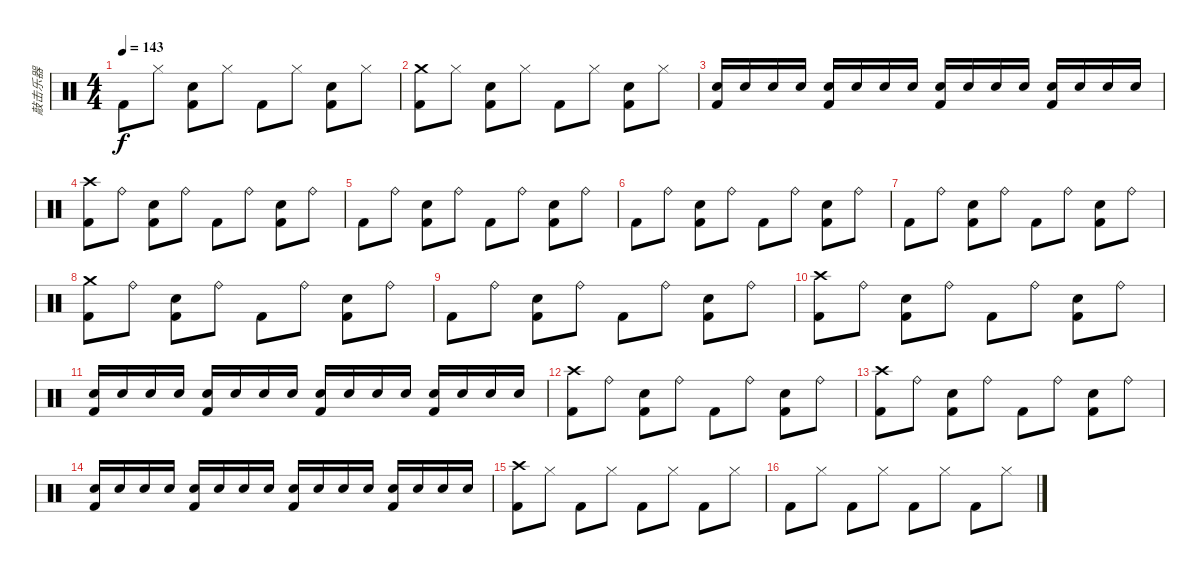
\track ("敲击乐器" "敲击乐器") {instrument percussion}
\staff {score}
\articulation defaults
\ts (4 4)
\tempo 143
\clef neutral
\ks c "Kick (hit) 2".8{dy f} "Hi-Hat (closed)".8
("Electric Snare (hit)" "Kick (hit) 2").8 "Hi-Hat (closed)".8 "Kick (hit) 2".8 "Hi-Hat (closed)".8 ("Electric Snare (hit)" "Kick (hit) 2").8 "Hi-Hat (closed)".8 |
("Crash medium (hit)" "Kick (hit) 2").8 "Hi-Hat (closed)".8 ("Electric Snare (hit)" "Kick (hit) 2").8 "Hi-Hat (closed)".8 "Kick (hit) 2".8 "Hi-Hat (closed)".8 ("Electric Snare (hit)" "Kick (hit) 2").8 "Hi-Hat (closed)".8 |
("Electric Snare (hit)" "Kick (hit) 2").16 "Electric Snare (hit)".16 "Electric Snare (hit)".16 "Electric Snare (hit)".16 ("Electric Snare (hit)" "Kick (hit) 2").16 "Electric Snare (hit)".16 "Electric Snare (hit)".16 "Electric Snare (hit)".16 ("Electric Snare (hit)" "Kick (hit) 2").16 "Electric Snare (hit)".16 "Electric Snare (hit)".16 "Electric Snare (hit)".16 ("Electric Snare (hit)" "Kick (hit) 2").16 "Electric Snare (hit)".16 "Electric Snare (hit)".16 "Electric Snare (hit)".16 |
("Crash high (hit)" "Kick (hit) 2").8 "Ride (bell)".8 ("Electric Snare (hit)" "Kick (hit) 2").8 "Ride (bell)".8 "Kick (hit) 2".8 "Ride (bell)".8 ("Electric Snare (hit)" "Kick (hit) 2").8 "Ride (bell)".8 |
"Kick (hit) 2".8 "Ride (bell)".8 ("Electric Snare (hit)" "Kick (hit) 2").8 "Ride (bell)".8 "Kick (hit) 2".8 "Ride (bell)".8 ("Electric Snare (hit)" "Kick (hit) 2").8 "Ride (bell)".8 |
"Kick (hit) 2".8 "Ride (bell)".8 ("Electric Snare (hit)" "Kick (hit) 2").8 "Ride (bell)".8 "Kick (hit) 2".8 "Ride (bell)".8 ("Electric Snare (hit)" "Kick (hit) 2").8 "Ride (bell)".8 |
"Kick (hit) 2".8 "Ride (bell)".8 ("Electric Snare (hit)" "Kick (hit) 2").8 "Ride (bell)".8 "Kick (hit) 2".8 "Ride (bell)".8 ("Electric Snare (hit)" "Kick (hit) 2").8 "Ride (bell)".8 |
("Crash medium (hit)" "Kick (hit) 2").8 "Ride (bell)".8 ("Electric Snare (hit)" "Kick (hit) 2").8 "Ride (bell)".8 "Kick (hit) 2".8 "Ride (bell)".8 ("Electric Snare (hit)" "Kick (hit) 2").8 "Ride (bell)".8 |
"Kick (hit) 2".8 "Ride (bell)".8 ("Electric Snare (hit)" "Kick (hit) 2").8 "Ride (bell)".8 "Kick (hit) 2".8 "Ride (bell)".8 ("Electric Snare (hit)" "Kick (hit) 2").8 "Ride (bell)".8 |
("Crash high (hit)" "Kick (hit) 2").8 "Ride (bell)".8 ("Electric Snare (hit)" "Kick (hit) 2").8 "Ride (bell)".8 "Kick (hit) 2".8 "Ride (bell)".8 ("Electric Snare (hit)" "Kick (hit) 2").8 "Ride (bell)".8 |
("Electric Snare (hit)" "Kick (hit) 2").16 "Electric Snare (hit)".16 "Electric Snare (hit)".16 "Electric Snare (hit)".16 ("Electric Snare (hit)" "Kick (hit) 2").16 "Electric Snare (hit)".16 "Electric Snare (hit)".16 "Electric Snare (hit)".16 ("Electric Snare (hit)" "Kick (hit) 2").16 "Electric Snare (hit)".16 "Electric Snare (hit)".16 "Electric Snare (hit)".16 ("Electric Snare (hit)" "Kick (hit) 2").16 "Electric Snare (hit)".16 "Electric Snare (hit)".16 "Electric Snare (hit)".16 |
("Crash high (hit)" "Kick (hit) 2").8 "Ride (bell)".8 ("Electric Snare (hit)" "Kick (hit) 2").8 "Ride (bell)".8 "Kick (hit) 2".8 "Ride (bell)".8 ("Electric Snare (hit)" "Kick (hit) 2").8 "Ride (bell)".8 |
("Crash high (hit)" "Kick (hit) 2").8 "Ride (bell)".8 ("Electric Snare (hit)" "Kick (hit) 2").8 "Ride (bell)".8 "Kick (hit) 2".8 "Ride (bell)".8 ("Electric Snare (hit)" "Kick (hit) 2").8 "Ride (bell)".8 |
("Electric Snare (hit)" "Kick (hit) 2").16 "Electric Snare (hit)".16 "Electric Snare (hit)".16 "Electric Snare (hit)".16 ("Electric Snare (hit)" "Kick (hit) 2").16 "Electric Snare (hit)".16 "Electric Snare (hit)".16 "Electric Snare (hit)".16 ("Electric Snare (hit)" "Kick (hit) 2").16 "Electric Snare (hit)".16 "Electric Snare (hit)".16 "Electric Snare (hit)".16 ("Electric Snare (hit)" "Kick (hit) 2").16 "Electric Snare (hit)".16 "Electric Snare (hit)".16 "Electric Snare (hit)".16 |
("Crash high (hit)" "Kick (hit) 2").8 "Hi-Hat (closed)".8 "Kick (hit) 2".8 "Hi-Hat (closed)".8 "Kick (hit) 2".8 "Hi-Hat (closed)".8 "Kick (hit) 2".8 "Hi-Hat (closed)".8 |
"Kick (hit) 2".8 "Hi-Hat (closed)".8 "Kick (hit) 2".8 "Hi-Hat (closed)".8 "Kick (hit) 2".8 "Hi-Hat (closed)".8 "Kick (hit) 2".8 "Hi-Hat (closed)".8
